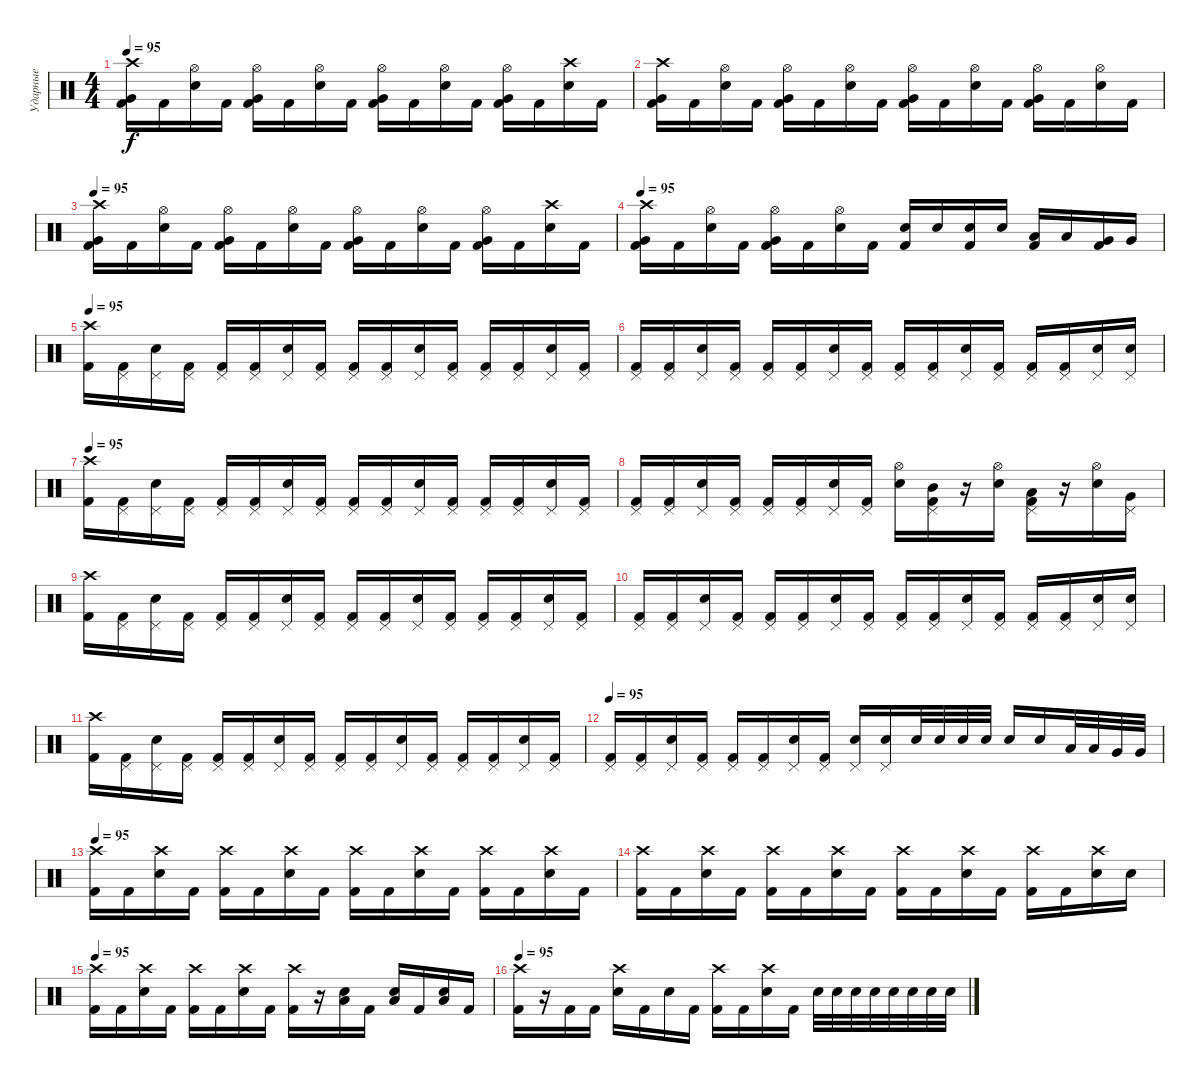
\track ("Ударные" "Ударные") {instrument percussion}
\staff {score}
\articulation defaults
\ts (4 4)
\tempo 95
\clef neutral
\ks c
("Kick (hit) 2" "Very Low Tom (hit)" "Crash high (hit)").16{dy f} "Kick (hit) 2".16 ("Electric Snare (hit)" "Hi-Hat (open)").16 "Kick (hit) 2".16 ("Kick (hit) 2" "Very Low Tom (hit)" "Hi-Hat (open)").16 "Kick (hit) 2".16 ("Electric Snare (hit)" "Hi-Hat (open)").16 "Kick (hit) 2".16 ("Kick (hit) 2" "Very Low Tom (hit)" "Hi-Hat (open)").16 "Kick (hit) 2".16 ("Electric Snare (hit)" "Hi-Hat (open)").16 "Kick (hit) 2".16 ("Kick (hit) 2" "Very Low Tom (hit)" "Hi-Hat (open)").16 "Kick (hit) 2".16 ("Electric Snare (hit)" "Crash high (hit)").16 "Kick (hit) 2".16 |
("Kick (hit) 2" "Very Low Tom (hit)" "Crash high (hit)").16 "Kick (hit) 2".16 ("Electric Snare (hit)" "Hi-Hat (open)").16 "Kick (hit) 2".16 ("Kick (hit) 2" "Very Low Tom (hit)" "Hi-Hat (open)").16 "Kick (hit) 2".16 ("Electric Snare (hit)" "Hi-Hat (open)").16 "Kick (hit) 2".16 ("Kick (hit) 2" "Very Low Tom (hit)" "Hi-Hat (open)").16 "Kick (hit) 2".16 ("Electric Snare (hit)" "Hi-Hat (open)").16 "Kick (hit) 2".16 ("Kick (hit) 2" "Very Low Tom (hit)" "Hi-Hat (open)").16 "Kick (hit) 2".16 ("Electric Snare (hit)" "Hi-Hat (open)").16 "Kick (hit) 2".16 |
\tempo 95
("Kick (hit) 2" "Very Low Tom (hit)" "Crash high (hit)").16 "Kick (hit) 2".16 ("Electric Snare (hit)" "Hi-Hat (open)").16 "Kick (hit) 2".16 ("Kick (hit) 2" "Very Low Tom (hit)" "Hi-Hat (open)").16 "Kick (hit) 2".16 ("Electric Snare (hit)" "Hi-Hat (open)").16 "Kick (hit) 2".16 ("Kick (hit) 2" "Very Low Tom (hit)" "Hi-Hat (open)").16 "Kick (hit) 2".16 ("Electric Snare (hit)" "Hi-Hat (open)").16 "Kick (hit) 2".16 ("Kick (hit) 2" "Very Low Tom (hit)" "Hi-Hat (open)").16 "Kick (hit) 2".16 ("Electric Snare (hit)" "Crash high (hit)").16 "Kick (hit) 2".16 |
\tempo 95
("Kick (hit) 2" "Very Low Tom (hit)" "Crash high (hit)").16 "Kick (hit) 2".16 ("Electric Snare (hit)" "Hi-Hat (open)").16 "Kick (hit) 2".16 ("Kick (hit) 2" "Very Low Tom (hit)" "Hi-Hat (open)").16 "Kick (hit) 2".16 ("Electric Snare (hit)" "Hi-Hat (open)").16 "Kick (hit) 2".16 ("Electric Snare (hit)" "Kick (hit) 2").16 "Electric Snare (hit)".16 ("Electric Snare (hit)" "Kick (hit) 2").16 "Electric Snare (hit)".16 ("Low Tom (hit)" "Kick (hit) 2").16 "Low Tom (hit)".16 ("Very Low Tom (hit)" "Kick (hit) 2").16 "Very Low Tom (hit)".16 |
\tempo 95
("Kick (hit) 2" "Crash high (hit)").16 ("Kick (hit) 2" "Pedal Hi-Hat (hit)").16 ("Electric Snare (hit)" "Pedal Hi-Hat (hit)").16 ("Kick (hit) 2" "Pedal Hi-Hat (hit)").16 ("Kick (hit) 2" "Pedal Hi-Hat (hit)").16 ("Kick (hit) 2" "Pedal Hi-Hat (hit)").16 ("Electric Snare (hit)" "Pedal Hi-Hat (hit)").16 ("Kick (hit) 2" "Pedal Hi-Hat (hit)").16 ("Kick (hit) 2" "Pedal Hi-Hat (hit)").16 ("Kick (hit) 2" "Pedal Hi-Hat (hit)").16 ("Electric Snare (hit)" "Pedal Hi-Hat (hit)").16 ("Kick (hit) 2" "Pedal Hi-Hat (hit)").16 ("Kick (hit) 2" "Pedal Hi-Hat (hit)").16 ("Kick (hit) 2" "Pedal Hi-Hat (hit)").16 ("Electric Snare (hit)" "Pedal Hi-Hat (hit)").16 ("Kick (hit) 2" "Pedal Hi-Hat (hit)").16 |
("Kick (hit) 2" "Pedal Hi-Hat (hit)").16 ("Kick (hit) 2" "Pedal Hi-Hat (hit)").16 ("Electric Snare (hit)" "Pedal Hi-Hat (hit)").16 ("Kick (hit) 2" "Pedal Hi-Hat (hit)").16 ("Kick (hit) 2" "Pedal Hi-Hat (hit)").16 ("Kick (hit) 2" "Pedal Hi-Hat (hit)").16 ("Electric Snare (hit)" "Pedal Hi-Hat (hit)").16 ("Kick (hit) 2" "Pedal Hi-Hat (hit)").16 ("Kick (hit) 2" "Pedal Hi-Hat (hit)").16 ("Kick (hit) 2" "Pedal Hi-Hat (hit)").16 ("Electric Snare (hit)" "Pedal Hi-Hat (hit)").16 ("Kick (hit) 2" "Pedal Hi-Hat (hit)").16 ("Kick (hit) 2" "Pedal Hi-Hat (hit)").16 ("Kick (hit) 2" "Pedal Hi-Hat (hit)").16 ("Electric Snare (hit)" "Pedal Hi-Hat (hit)").16 ("Electric Snare (hit)" "Pedal Hi-Hat (hit)").16 |
\tempo 95
("Kick (hit) 2" "Crash high (hit)").16 ("Kick (hit) 2" "Pedal Hi-Hat (hit)").16 ("Electric Snare (hit)" "Pedal Hi-Hat (hit)").16 ("Kick (hit) 2" "Pedal Hi-Hat (hit)").16 ("Kick (hit) 2" "Pedal Hi-Hat (hit)").16 ("Kick (hit) 2" "Pedal Hi-Hat (hit)").16 ("Electric Snare (hit)" "Pedal Hi-Hat (hit)").16 ("Kick (hit) 2" "Pedal Hi-Hat (hit)").16 ("Kick (hit) 2" "Pedal Hi-Hat (hit)").16 ("Kick (hit) 2" "Pedal Hi-Hat (hit)").16 ("Electric Snare (hit)" "Pedal Hi-Hat (hit)").16 ("Kick (hit) 2" "Pedal Hi-Hat (hit)").16 ("Kick (hit) 2" "Pedal Hi-Hat (hit)").16 ("Kick (hit) 2" "Pedal Hi-Hat (hit)").16 ("Electric Snare (hit)" "Pedal Hi-Hat (hit)").16 ("Kick (hit) 2" "Pedal Hi-Hat (hit)").16 |
("Kick (hit) 2" "Pedal Hi-Hat (hit)").16 ("Kick (hit) 2" "Pedal Hi-Hat (hit)").16 ("Electric Snare (hit)" "Pedal Hi-Hat (hit)").16 ("Kick (hit) 2" "Pedal Hi-Hat (hit)").16 ("Kick (hit) 2" "Pedal Hi-Hat (hit)").16 ("Kick (hit) 2" "Pedal Hi-Hat (hit)").16 ("Electric Snare (hit)" "Pedal Hi-Hat (hit)").16 ("Kick (hit) 2" "Pedal Hi-Hat (hit)").16 ("Electric Snare (hit)" "Hi-Hat (open)").16 ("Kick (hit) 2" "Mid Tom (hit)" "Pedal Hi-Hat (hit)").16 r.16 ("Electric Snare (hit)" "Hi-Hat (open)").16 ("Kick (hit) 2" "Low Tom (hit)" "Pedal Hi-Hat (hit)").16 r.16 ("Electric Snare (hit)" "Hi-Hat (open)").16 ("Very Low Tom (hit)" "Pedal Hi-Hat (hit)").16 |
("Kick (hit) 2" "Crash high (hit)").16 ("Kick (hit) 2" "Pedal Hi-Hat (hit)").16 ("Electric Snare (hit)" "Pedal Hi-Hat (hit)").16 ("Kick (hit) 2" "Pedal Hi-Hat (hit)").16 ("Kick (hit) 2" "Pedal Hi-Hat (hit)").16 ("Kick (hit) 2" "Pedal Hi-Hat (hit)").16 ("Electric Snare (hit)" "Pedal Hi-Hat (hit)").16 ("Kick (hit) 2" "Pedal Hi-Hat (hit)").16 ("Kick (hit) 2" "Pedal Hi-Hat (hit)").16 ("Kick (hit) 2" "Pedal Hi-Hat (hit)").16 ("Electric Snare (hit)" "Pedal Hi-Hat (hit)").16 ("Kick (hit) 2" "Pedal Hi-Hat (hit)").16 ("Kick (hit) 2" "Pedal Hi-Hat (hit)").16 ("Kick (hit) 2" "Pedal Hi-Hat (hit)").16 ("Electric Snare (hit)" "Pedal Hi-Hat (hit)").16 ("Kick (hit) 2" "Pedal Hi-Hat (hit)").16 |
("Kick (hit) 2" "Pedal Hi-Hat (hit)").16 ("Kick (hit) 2" "Pedal Hi-Hat (hit)").16 ("Electric Snare (hit)" "Pedal Hi-Hat (hit)").16 ("Kick (hit) 2" "Pedal Hi-Hat (hit)").16 ("Kick (hit) 2" "Pedal Hi-Hat (hit)").16 ("Kick (hit) 2" "Pedal Hi-Hat (hit)").16 ("Electric Snare (hit)" "Pedal Hi-Hat (hit)").16 ("Kick (hit) 2" "Pedal Hi-Hat (hit)").16 ("Kick (hit) 2" "Pedal Hi-Hat (hit)").16 ("Kick (hit) 2" "Pedal Hi-Hat (hit)").16 ("Electric Snare (hit)" "Pedal Hi-Hat (hit)").16 ("Kick (hit) 2" "Pedal Hi-Hat (hit)").16 ("Kick (hit) 2" "Pedal Hi-Hat (hit)").16 ("Kick (hit) 2" "Pedal Hi-Hat (hit)").16 ("Electric Snare (hit)" "Pedal Hi-Hat (hit)").16 ("Electric Snare (hit)" "Pedal Hi-Hat (hit)").16 |
("Kick (hit) 2" "Crash high (hit)").16 ("Kick (hit) 2" "Pedal Hi-Hat (hit)").16 ("Electric Snare (hit)" "Pedal Hi-Hat (hit)").16 ("Kick (hit) 2" "Pedal Hi-Hat (hit)").16 ("Kick (hit) 2" "Pedal Hi-Hat (hit)").16 ("Kick (hit) 2" "Pedal Hi-Hat (hit)").16 ("Electric Snare (hit)" "Pedal Hi-Hat (hit)").16 ("Kick (hit) 2" "Pedal Hi-Hat (hit)").16 ("Kick (hit) 2" "Pedal Hi-Hat (hit)").16 ("Kick (hit) 2" "Pedal Hi-Hat (hit)").16 ("Electric Snare (hit)" "Pedal Hi-Hat (hit)").16 ("Kick (hit) 2" "Pedal Hi-Hat (hit)").16 ("Kick (hit) 2" "Pedal Hi-Hat (hit)").16 ("Kick (hit) 2" "Pedal Hi-Hat (hit)").16 ("Electric Snare (hit)" "Pedal Hi-Hat (hit)").16 ("Kick (hit) 2" "Pedal Hi-Hat (hit)").16 |
\tempo 95
("Kick (hit) 2" "Pedal Hi-Hat (hit)").16 ("Kick (hit) 2" "Pedal Hi-Hat (hit)").16 ("Electric Snare (hit)" "Pedal Hi-Hat (hit)").16 ("Kick (hit) 2" "Pedal Hi-Hat (hit)").16 ("Kick (hit) 2" "Pedal Hi-Hat (hit)").16 ("Kick (hit) 2" "Pedal Hi-Hat (hit)").16 ("Electric Snare (hit)" "Pedal Hi-Hat (hit)").16 ("Kick (hit) 2" "Pedal Hi-Hat (hit)").16 ("Electric Snare (hit)" "Pedal Hi-Hat (hit)").16 ("Electric Snare (hit)" "Pedal Hi-Hat (hit)").16 "Electric Snare (hit)".32 "Electric Snare (hit)".32 "Electric Snare (hit)".32 "Electric Snare (hit)".32 "Electric Snare (hit)".16 "Electric Snare (hit)".16 "Low Tom (hit)".32 "Low Tom (hit)".32 "Very Low Tom (hit)".32 "Very Low Tom (hit)".32 |
\tempo 95
("Kick (hit) 2" "Crash high (hit)").16 "Kick (hit) 2".16 ("Electric Snare (hit)" "Crash high (hit)").16 "Kick (hit) 2".16 ("Kick (hit) 2" "Crash high (hit)").16 "Kick (hit) 2".16 ("Electric Snare (hit)" "Crash high (hit)").16 "Kick (hit) 2".16 ("Kick (hit) 2" "Crash high (hit)").16 "Kick (hit) 2".16 ("Electric Snare (hit)" "Crash high (hit)").16 "Kick (hit) 2".16 ("Kick (hit) 2" "Crash high (hit)").16 "Kick (hit) 2".16 ("Electric Snare (hit)" "Crash high (hit)").16 "Kick (hit) 2".16 |
("Kick (hit) 2" "Crash high (hit)").16 "Kick (hit) 2".16 ("Electric Snare (hit)" "Crash high (hit)").16 "Kick (hit) 2".16 ("Kick (hit) 2" "Crash high (hit)").16 "Kick (hit) 2".16 ("Electric Snare (hit)" "Crash high (hit)").16 "Kick (hit) 2".16 ("Kick (hit) 2" "Crash high (hit)").16 "Kick (hit) 2".16 ("Electric Snare (hit)" "Crash high (hit)").16 "Kick (hit) 2".16 ("Kick (hit) 2" "Crash high (hit)").16 "Kick (hit) 2".16 ("Electric Snare (hit)" "Crash high (hit)").16 "Electric Snare (hit)".16 |
\tempo 95
("Kick (hit) 2" "Crash high (hit)").16 "Kick (hit) 2".16 ("Electric Snare (hit)" "Crash high (hit)").16 "Kick (hit) 2".16 ("Kick (hit) 2" "Crash high (hit)").16 "Kick (hit) 2".16 ("Electric Snare (hit)" "Crash high (hit)").16 "Kick (hit) 2".16 ("Kick (hit) 2" "Crash high (hit)").16 r.16 ("Electric Snare (hit)" "Low Floor Tom (hit)").16 "Kick (hit) 2".16 ("Electric Snare (hit)" "Low Floor Tom (hit)").16 "Kick (hit) 2".16 ("Electric Snare (hit)" "Low Floor Tom (hit)").16 "Kick (hit) 2".16 |
\tempo 95
("Kick (hit) 2" "Crash high (hit)").16 r.16 "Kick (hit) 2".16 "Kick (hit) 2".16 ("Electric Snare (hit)" "Crash high (hit)").16 "Kick (hit) 2".16 "Electric Snare (hit)".16 "Kick (hit) 2".16 ("Kick (hit) 2" "Crash high (hit)").16 "Kick (hit) 2".16 ("Electric Snare (hit)" "Crash high (hit)").16 "Kick (hit) 2".16 "Electric Snare (hit)".32 "Electric Snare (hit)".32 "Electric Snare (hit)".32 "Electric Snare (hit)".32 "Electric Snare (hit)".32 "Electric Snare (hit)".32 "Electric Snare (hit)".32 "Electric Snare (hit)".32
